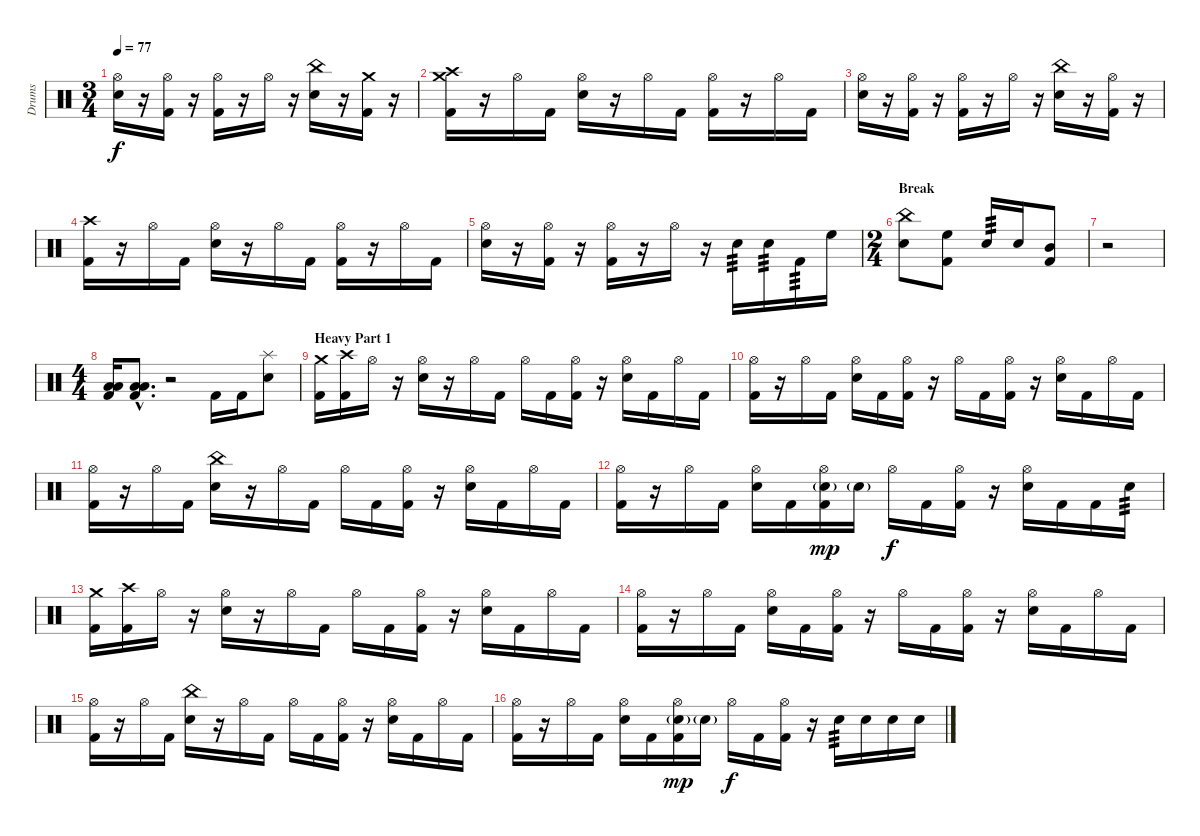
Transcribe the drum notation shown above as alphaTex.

\track ("Drums" "Drums") {instrument percussion}
\staff {score}
\articulation defaults
\ts (3 4)
\tempo 77
\clef neutral
\ks c
("Hi-Hat (open)" "Electric Snare (hit)").16{dy f} r.16 ("Hi-Hat (open)" "Kick (hit) 2").16 r.16 ("Hi-Hat (open)" "Kick (hit) 2").16 r.16 "Hi-Hat (open)".16 r.16 ("China (hit)" "Electric Snare (hit)").16 r.16 ("Crash medium (hit)" "Kick (hit) 2").16 r.16 |
("Crash high (hit)" "Crash medium (hit)" "Kick (hit) 2").16 r.16 "Hi-Hat (open)".16 "Kick (hit) 2".16 ("Hi-Hat (open)" "Electric Snare (hit)").16 r.16 "Hi-Hat (open)".16 "Kick (hit) 2".16 ("Hi-Hat (open)" "Kick (hit) 2").16 r.16 "Hi-Hat (open)".16 "Kick (hit) 2".16 |
("Hi-Hat (open)" "Electric Snare (hit)").16 r.16 ("Hi-Hat (open)" "Kick (hit) 2").16 r.16 ("Hi-Hat (open)" "Kick (hit) 2").16 r.16 "Hi-Hat (open)".16 r.16 ("China (hit)" "Electric Snare (hit)").16 r.16 ("Hi-Hat (open)" "Kick (hit) 2").16 r.16 |
("Crash high (hit)" "Kick (hit) 2").16 r.16 "Hi-Hat (open)".16 "Kick (hit) 2".16 ("Hi-Hat (open)" "Electric Snare (hit)").16 r.16 "Hi-Hat (open)".16 "Kick (hit) 2".16 ("Hi-Hat (open)" "Kick (hit) 2").16 r.16 "Hi-Hat (open)".16 "Kick (hit) 2".16 |
("Hi-Hat (open)" "Electric Snare (hit)").16 r.16 ("Hi-Hat (open)" "Kick (hit) 2").16 r.16 ("Hi-Hat (open)" "Kick (hit) 2").16 r.16 "Hi-Hat (open)".16 r.16 "Electric Snare (hit)".16{tp 3} "Electric Snare (hit)".16{tp 3} "Kick (hit) 2".16{tp 3} "High Floor Tom (hit)".16 |
\ts (2 4)
\section ("" "Break")
("China (hit)" "Electric Snare (hit)").8 ("High Floor Tom (hit)" "Kick (hit) 2").8 "Electric Snare (hit)".16{tp 3} "Electric Snare (hit)".16 ("Mid Tom (hit)" "Kick (hit) 2").8 |
r.2 |
\ts (4 4)
("Low Tom (hit)" "Low Floor Tom (hit)" "Kick (hit) 2").16 ("Low Tom (hit)"{hac} "Low Floor Tom (hit)"{hac} "Kick (hit) 2"{hac}).8{d} r.2 "Kick (hit) 2".16 "Kick (hit) 2".16 ("Splash (hit)" "Electric Snare (hit)").8 |
\section ("" "Heavy Part 1")
("Crash medium (hit)" "Kick (hit) 2").16 ("Crash high (hit)" "Kick (hit) 2").16 "Hi-Hat (open)".16 r.16 ("Hi-Hat (open)" "Electric Snare (hit)").16 r.16 "Hi-Hat (open)".16 "Kick (hit) 2".16 "Hi-Hat (open)".16 "Kick (hit) 2".16 ("Hi-Hat (open)" "Kick (hit) 2").16 r.16 ("Hi-Hat (open)" "Electric Snare (hit)").16 "Kick (hit) 2".16 "Hi-Hat (open)".16 "Kick (hit) 2".16 |
("Hi-Hat (open)" "Kick (hit) 2").16 r.16 "Hi-Hat (open)".16 "Kick (hit) 2".16 ("Hi-Hat (open)" "Electric Snare (hit)").16 "Kick (hit) 2".16 ("Hi-Hat (open)" "Kick (hit) 2").16 r.16 "Hi-Hat (open)".16 "Kick (hit) 2".16 ("Hi-Hat (open)" "Kick (hit) 2").16 r.16 ("Hi-Hat (open)" "Electric Snare (hit)").16 "Kick (hit) 2".16 "Hi-Hat (open)".16 "Kick (hit) 2".16 |
("Hi-Hat (open)" "Kick (hit) 2").16 r.16 "Hi-Hat (open)".16 "Kick (hit) 2".16 ("China (hit)" "Electric Snare (hit)").16 r.16 "Hi-Hat (open)".16 "Kick (hit) 2".16 "Hi-Hat (open)".16 "Kick (hit) 2".16 ("Hi-Hat (open)" "Kick (hit) 2").16 r.16 ("Hi-Hat (open)" "Electric Snare (hit)").16 "Kick (hit) 2".16 "Hi-Hat (open)".16 "Kick (hit) 2".16 |
("Hi-Hat (open)" "Kick (hit) 2").16 r.16 "Hi-Hat (open)".16 "Kick (hit) 2".16 ("Hi-Hat (open)" "Electric Snare (hit)").16 "Kick (hit) 2".16 ("Hi-Hat (open)" "Electric Snare (hit)"{g} "Kick (hit) 2").16{dy mp} "Electric Snare (hit)"{g}.16 "Hi-Hat (open)".16{dy f} "Kick (hit) 2".16 ("Hi-Hat (open)" "Kick (hit) 2").16 r.16 ("Hi-Hat (open)" "Electric Snare (hit)").16 "Kick (hit) 2".16 "Kick (hit) 2".16 "Electric Snare (hit)".16{tp 3} |
("Crash medium (hit)" "Kick (hit) 2").16 ("Crash high (hit)" "Kick (hit) 2").16 "Hi-Hat (open)".16 r.16 ("Hi-Hat (open)" "Electric Snare (hit)").16 r.16 "Hi-Hat (open)".16 "Kick (hit) 2".16 "Hi-Hat (open)".16 "Kick (hit) 2".16 ("Hi-Hat (open)" "Kick (hit) 2").16 r.16 ("Hi-Hat (open)" "Electric Snare (hit)").16 "Kick (hit) 2".16 "Hi-Hat (open)".16 "Kick (hit) 2".16 |
("Hi-Hat (open)" "Kick (hit) 2").16 r.16 "Hi-Hat (open)".16 "Kick (hit) 2".16 ("Hi-Hat (open)" "Electric Snare (hit)").16 "Kick (hit) 2".16 ("Hi-Hat (open)" "Kick (hit) 2").16 r.16 "Hi-Hat (open)".16 "Kick (hit) 2".16 ("Hi-Hat (open)" "Kick (hit) 2").16 r.16 ("Hi-Hat (open)" "Electric Snare (hit)").16 "Kick (hit) 2".16 "Hi-Hat (open)".16 "Kick (hit) 2".16 |
("Hi-Hat (open)" "Kick (hit) 2").16 r.16 "Hi-Hat (open)".16 "Kick (hit) 2".16 ("China (hit)" "Electric Snare (hit)").16 r.16 "Hi-Hat (open)".16 "Kick (hit) 2".16 "Hi-Hat (open)".16 "Kick (hit) 2".16 ("Hi-Hat (open)" "Kick (hit) 2").16 r.16 ("Hi-Hat (open)" "Electric Snare (hit)").16 "Kick (hit) 2".16 "Hi-Hat (open)".16 "Kick (hit) 2".16 |
("Hi-Hat (open)" "Kick (hit) 2").16 r.16 "Hi-Hat (open)".16 "Kick (hit) 2".16 ("Hi-Hat (open)" "Electric Snare (hit)").16 "Kick (hit) 2".16 ("Hi-Hat (open)" "Electric Snare (hit)"{g} "Kick (hit) 2").16{dy mp} "Electric Snare (hit)"{g}.16 "Hi-Hat (open)".16{dy f} "Kick (hit) 2".16 ("Hi-Hat (open)" "Kick (hit) 2").16 r.16 "Electric Snare (hit)".16{tp 3} "Electric Snare (hit)".16 "Electric Snare (hit)".16 "Electric Snare (hit)".16
